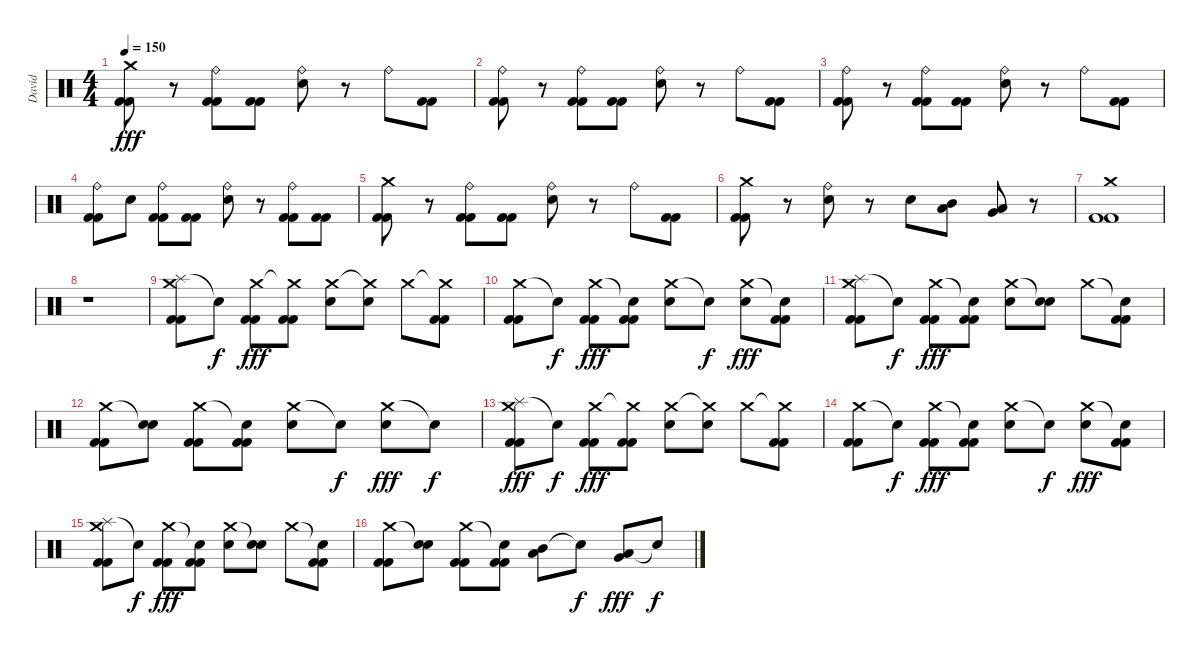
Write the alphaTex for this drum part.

\track ("David" "David") {instrument percussion}
\staff {score}
\articulation defaults
\ts (4 4)
\tempo 150
\clef neutral
\ks c
("Crash medium (hit)" "Kick (hit) 2" "Kick (hit) 2").8{dy fff} r.8 ("Ride (bell)" "Kick (hit) 2" "Kick (hit) 2").8 ("Kick (hit) 2" "Kick (hit) 2").8 ("Ride (bell)" "Electric Snare (hit)").8 r.8 "Ride (bell)".8 ("Kick (hit) 2" "Kick (hit) 2").8 |
("Ride (bell)" "Kick (hit) 2" "Kick (hit) 2").8 r.8 ("Ride (bell)" "Kick (hit) 2" "Kick (hit) 2").8 ("Kick (hit) 2" "Kick (hit) 2").8 ("Ride (bell)" "Electric Snare (hit)").8 r.8 "Ride (bell)".8 ("Kick (hit) 2" "Kick (hit) 2").8 |
("Ride (bell)" "Kick (hit) 2" "Kick (hit) 2").8 r.8 ("Ride (bell)" "Kick (hit) 2" "Kick (hit) 2").8 ("Kick (hit) 2" "Kick (hit) 2").8 ("Ride (bell)" "Electric Snare (hit)").8 r.8 "Ride (bell)".8 ("Kick (hit) 2" "Kick (hit) 2").8 |
("Ride (bell)" "Kick (hit) 2" "Kick (hit) 2").8 "Electric Snare (hit)".8 ("Ride (bell)" "Kick (hit) 2" "Kick (hit) 2").8 ("Kick (hit) 2" "Kick (hit) 2").8 ("Ride (bell)" "Electric Snare (hit)").8 r.8 ("Ride (bell)" "Kick (hit) 2" "Kick (hit) 2").8 ("Kick (hit) 2" "Kick (hit) 2").8 |
("Crash medium (hit)" "Kick (hit) 2" "Kick (hit) 2").8 r.8 ("Ride (bell)" "Kick (hit) 2" "Kick (hit) 2").8 ("Kick (hit) 2" "Kick (hit) 2").8 ("Ride (bell)" "Electric Snare (hit)").8 r.8 "Ride (bell)".8 ("Kick (hit) 2" "Kick (hit) 2").8 |
("Crash medium (hit)" "Kick (hit) 2" "Kick (hit) 2").8 r.8 ("Ride (bell)" "Electric Snare (hit)").8 r.8 "Electric Snare (hit)".8 ("Mid Tom (hit)" "Low Tom (hit)").8 ("Low Floor Tom (hit)" "Very Low Tom (hit)").8 r.8 |
("Crash medium (hit)" "Kick (hit) 2" "Kick (hit) 2").1 |
r.1 |
("Splash (hit)" "Crash medium (hit)" "Kick (hit) 2" "Kick (hit) 2").8 "Snare (hit)"{t}.8{dy f} ("Crash medium (hit)" "Kick (hit) 2" "Kick (hit) 2").8{dy fff} ("Crash medium (hit)"{t} "Kick (hit) 2" "Kick (hit) 2").8 ("Crash medium (hit)" "Electric Snare (hit)").8 ("Crash medium (hit)"{t} "Electric Snare (hit)").8 "Crash medium (hit)".8 ("Crash medium (hit)"{t} "Kick (hit) 2" "Kick (hit) 2").8 |
("Crash medium (hit)" "Kick (hit) 2" "Kick (hit) 2").8 "Snare (hit)"{t}.8{dy f} ("Crash medium (hit)" "Kick (hit) 2" "Kick (hit) 2").8{dy fff} ("Snare (hit)"{t} "Kick (hit) 2" "Kick (hit) 2").8 ("Crash medium (hit)" "Electric Snare (hit)").8 "Snare (hit)"{t}.8{dy f} ("Crash medium (hit)" "Electric Snare (hit)").8{dy fff} ("Snare (hit)"{t} "Kick (hit) 2" "Kick (hit) 2").8 |
("Splash (hit)" "Crash medium (hit)" "Kick (hit) 2" "Kick (hit) 2").8 "Snare (hit)"{t}.8{dy f} ("Crash medium (hit)" "Kick (hit) 2" "Kick (hit) 2").8{dy fff} ("Snare (hit)"{t} "Kick (hit) 2" "Kick (hit) 2").8 ("Crash medium (hit)" "Electric Snare (hit)").8 ("Snare (hit)"{t} "Electric Snare (hit)").8 "Crash medium (hit)".8 ("Snare (hit)"{t} "Kick (hit) 2" "Kick (hit) 2").8 |
("Crash medium (hit)" "Kick (hit) 2" "Kick (hit) 2").8 ("Snare (hit)"{t} "Electric Snare (hit)").8 ("Crash medium (hit)" "Kick (hit) 2" "Kick (hit) 2").8 ("Snare (hit)"{t} "Kick (hit) 2" "Kick (hit) 2").8 ("Crash medium (hit)" "Electric Snare (hit)").8 "Snare (hit)"{t}.8{dy f} ("Crash medium (hit)" "Electric Snare (hit)").8{dy fff} "Snare (hit)"{t}.8{dy f} |
("Splash (hit)" "Crash medium (hit)" "Kick (hit) 2" "Kick (hit) 2").8{dy fff} "Snare (hit)"{t}.8{dy f} ("Crash medium (hit)" "Kick (hit) 2" "Kick (hit) 2").8{dy fff} ("Crash medium (hit)"{t} "Kick (hit) 2" "Kick (hit) 2").8 ("Crash medium (hit)" "Electric Snare (hit)").8 ("Crash medium (hit)"{t} "Electric Snare (hit)").8 "Crash medium (hit)".8 ("Crash medium (hit)"{t} "Kick (hit) 2" "Kick (hit) 2").8 |
("Crash medium (hit)" "Kick (hit) 2" "Kick (hit) 2").8 "Snare (hit)"{t}.8{dy f} ("Crash medium (hit)" "Kick (hit) 2" "Kick (hit) 2").8{dy fff} ("Snare (hit)"{t} "Kick (hit) 2" "Kick (hit) 2").8 ("Crash medium (hit)" "Electric Snare (hit)").8 "Snare (hit)"{t}.8{dy f} ("Crash medium (hit)" "Electric Snare (hit)").8{dy fff} ("Snare (hit)"{t} "Kick (hit) 2" "Kick (hit) 2").8 |
("Splash (hit)" "Crash medium (hit)" "Kick (hit) 2" "Kick (hit) 2").8 "Snare (hit)"{t}.8{dy f} ("Crash medium (hit)" "Kick (hit) 2" "Kick (hit) 2").8{dy fff} ("Snare (hit)"{t} "Kick (hit) 2" "Kick (hit) 2").8 ("Crash medium (hit)" "Electric Snare (hit)").8 ("Snare (hit)"{t} "Electric Snare (hit)").8 "Crash medium (hit)".8 ("Snare (hit)"{t} "Kick (hit) 2" "Kick (hit) 2").8 |
("Crash medium (hit)" "Kick (hit) 2" "Kick (hit) 2").8 ("Snare (hit)"{t} "Electric Snare (hit)").8 ("Crash medium (hit)" "Kick (hit) 2" "Kick (hit) 2").8 ("Snare (hit)"{t} "Kick (hit) 2" "Kick (hit) 2").8 ("Mid Tom (hit)" "Low Tom (hit)").8 "Snare (hit)"{t}.8{dy f} ("Low Floor Tom (hit)" "Very Low Tom (hit)").8{dy fff} "Snare (hit)"{t}.8{dy f}
